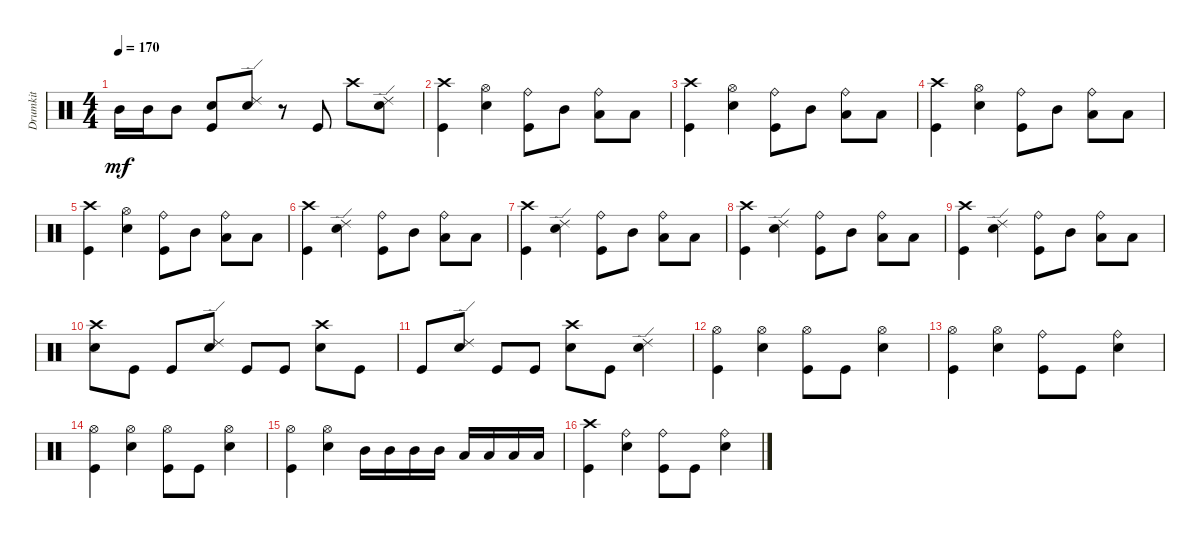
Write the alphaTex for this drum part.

\track ("Drumkit" "Drumkit") {instrument percussion}
\staff {score}
\articulation defaults
\ts (4 4)
\tempo 170
\clef neutral
\ks c "Mid Tom (hit)".16{dy mf} "Mid Tom (hit)".16 "Mid Tom (hit)".8
("Snare (hit) 2" "Kick (hit)").8 ("Snare (hit) 2" "Ride (edge) 2").8 r.8 "Kick (hit)".8 "Crash high (hit)".8 ("Ride (edge) 2" "Snare (hit) 2").8 |
("Kick (hit)" "Crash high (hit)").4 ("Hi-Hat (open)" "Snare (hit) 2").4 ("Kick (hit)" "Ride (bell)").8 "Mid Tom (hit)".8 ("Low Tom (hit)" "Ride (bell)").8 "Low Floor Tom (hit)".8 |
("Kick (hit)" "Crash high (hit)").4 ("Hi-Hat (open)" "Snare (hit) 2").4 ("Kick (hit)" "Ride (bell)").8 "Mid Tom (hit)".8 ("Low Tom (hit)" "Ride (bell)").8 "Low Floor Tom (hit)".8 |
("Kick (hit)" "Crash high (hit)").4 ("Hi-Hat (open)" "Snare (hit) 2").4 ("Kick (hit)" "Ride (bell)").8 "Mid Tom (hit)".8 ("Low Tom (hit)" "Ride (bell)").8 "Low Floor Tom (hit)".8 |
("Kick (hit)" "Crash high (hit)").4 ("Hi-Hat (open)" "Snare (hit) 2").4 ("Kick (hit)" "Ride (bell)").8 "Mid Tom (hit)".8 ("Low Tom (hit)" "Ride (bell)").8 "Low Floor Tom (hit)".8 |
("Kick (hit)" "Crash high (hit)").4 ("Snare (hit) 2" "Ride (edge) 2").4 ("Kick (hit)" "Ride (bell)").8 "Mid Tom (hit)".8 ("Low Tom (hit)" "Ride (bell)").8 "Low Floor Tom (hit)".8 |
("Kick (hit)" "Crash high (hit)").4 ("Snare (hit) 2" "Ride (edge) 2").4 ("Kick (hit)" "Ride (bell)").8 "Mid Tom (hit)".8 ("Low Tom (hit)" "Ride (bell)").8 "Low Floor Tom (hit)".8 |
("Kick (hit)" "Crash high (hit)").4 ("Snare (hit) 2" "Ride (edge) 2").4 ("Kick (hit)" "Ride (bell)").8 "Mid Tom (hit)".8 ("Low Tom (hit)" "Ride (bell)").8 "Low Floor Tom (hit)".8 |
("Kick (hit)" "Crash high (hit)").4 ("Snare (hit) 2" "Ride (edge) 2").4 ("Kick (hit)" "Ride (bell)").8 "Mid Tom (hit)".8 ("Low Tom (hit)" "Ride (bell)").8 "Low Floor Tom (hit)".8 |
("Snare (hit) 2" "Crash high (hit)").8 "Kick (hit)".8 "Kick (hit)".8 ("Snare (hit) 2" "Ride (edge) 2").8 "Kick (hit)".8 "Kick (hit)".8 ("Snare (hit) 2" "Crash high (hit)").8 "Kick (hit)".8 |
"Kick (hit)".8 ("Snare (hit) 2" "Ride (edge) 2").8 "Kick (hit)".8 "Kick (hit)".8 ("Snare (hit) 2" "Crash high (hit)").8 "Kick (hit)".8 ("Snare (hit) 2" "Ride (edge) 2").4 |
("Hi-Hat (open)" "Kick (hit)").4 ("Snare (hit) 2" "Hi-Hat (open)").4 ("Kick (hit)" "Hi-Hat (open)").8 "Kick (hit)".8 ("Snare (hit) 2" "Hi-Hat (open)").4 |
("Hi-Hat (open)" "Kick (hit)").4 ("Snare (hit) 2" "Hi-Hat (open)").4 ("Kick (hit)" "Ride (bell)").8 "Kick (hit)".8 ("Snare (hit) 2" "Ride (bell)").4 |
("Hi-Hat (open)" "Kick (hit)").4 ("Snare (hit) 2" "Hi-Hat (open)").4 ("Kick (hit)" "Hi-Hat (open)").8 "Kick (hit)".8 ("Snare (hit) 2" "Hi-Hat (open)").4 |
("Hi-Hat (open)" "Kick (hit)").4 ("Snare (hit) 2" "Hi-Hat (open)").4 "Mid Tom (hit)".16 "Mid Tom (hit)".16 "Mid Tom (hit)".16 "Mid Tom (hit)".16 "Low Tom (hit)".16 "Low Tom (hit)".16 "Low Tom (hit)".16 "Low Tom (hit)".16 |
("Kick (hit)" "Crash high (hit)").4 ("Snare (hit) 2" "Ride (bell)").4 ("Kick (hit)" "Ride (bell)").8 "Kick (hit)".8 ("Snare (hit) 2" "Ride (bell)").4
